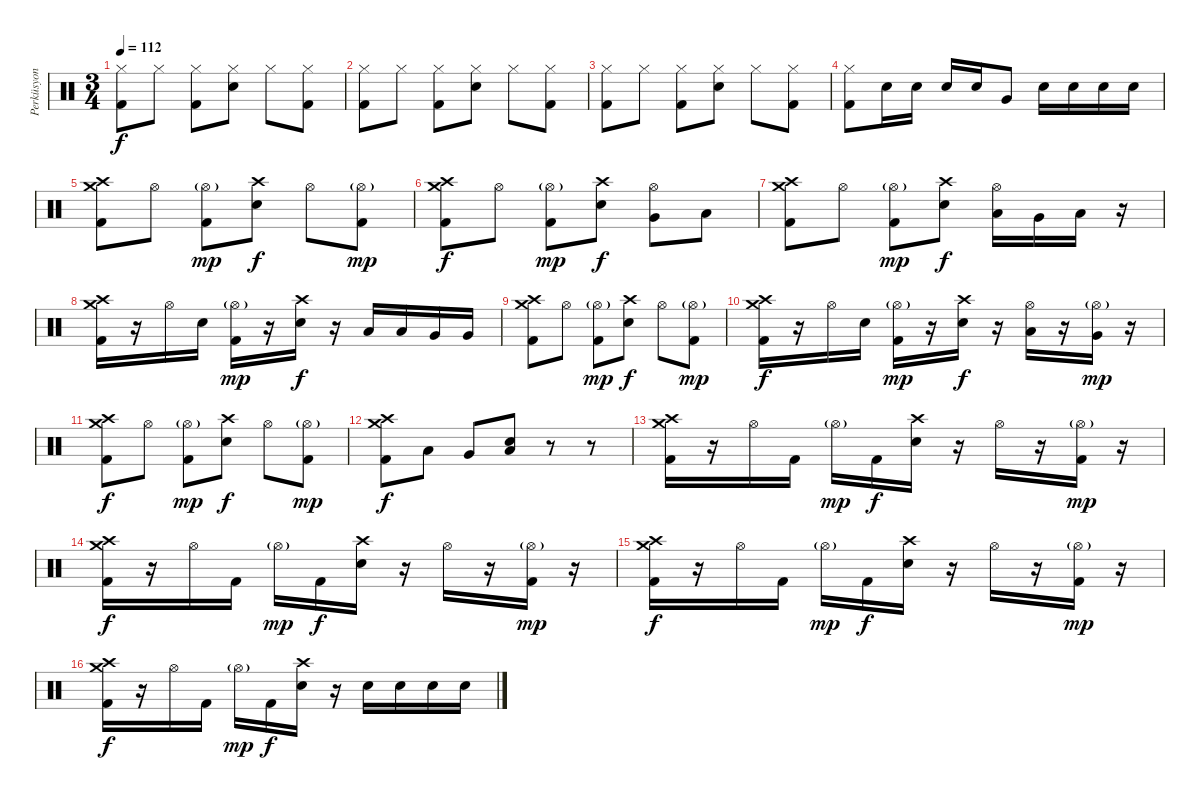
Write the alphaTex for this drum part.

\track ("Perküsyon" "Perküsyon") {instrument percussion}
\staff {score}
\articulation defaults
\ts (3 4)
\tempo 112
\clef neutral
\ks c
("Hi-Hat (closed)" "Kick (hit) 2").8{dy f} "Hi-Hat (closed)".8 ("Hi-Hat (closed)" "Kick (hit) 2").8 ("Hi-Hat (closed)" "Electric Snare (hit)").8 "Hi-Hat (closed)".8 ("Hi-Hat (closed)" "Kick (hit) 2").8 |
("Hi-Hat (closed)" "Kick (hit) 2").8 "Hi-Hat (closed)".8 ("Hi-Hat (closed)" "Kick (hit) 2").8 ("Hi-Hat (closed)" "Electric Snare (hit)").8 "Hi-Hat (closed)".8 ("Hi-Hat (closed)" "Kick (hit) 2").8 |
("Hi-Hat (closed)" "Kick (hit) 2").8 "Hi-Hat (closed)".8 ("Hi-Hat (closed)" "Kick (hit) 2").8 ("Hi-Hat (closed)" "Electric Snare (hit)").8 "Hi-Hat (closed)".8 ("Hi-Hat (closed)" "Kick (hit) 2").8 |
("Hi-Hat (closed)" "Kick (hit) 2").8 "Electric Snare (hit)".16 "Electric Snare (hit)".16 "Electric Snare (hit)".16 "Electric Snare (hit)".16 "Very Low Tom (hit)".8 "Electric Snare (hit)".16 "Electric Snare (hit)".16 "Electric Snare (hit)".16 "Electric Snare (hit)".16 |
("Crash high (hit)" "Crash medium (hit)" "Kick (hit) 2").8 "Hi-Hat (open)".8 ("Hi-Hat (open)"{g} "Kick (hit) 2").8{dy mp} ("Crash high (hit)" "Electric Snare (hit)").8{dy f} "Hi-Hat (open)".8 ("Hi-Hat (open)"{g} "Kick (hit) 2").8{dy mp} |
("Crash high (hit)" "Crash medium (hit)" "Kick (hit) 2").8{dy f} "Hi-Hat (open)".8 ("Hi-Hat (open)"{g} "Kick (hit) 2").8{dy mp} ("Crash high (hit)" "Electric Snare (hit)").8{dy f} ("Hi-Hat (open)" "Very Low Tom (hit)").8 "Low Floor Tom (hit)".8 |
("Crash high (hit)" "Crash medium (hit)" "Kick (hit) 2").8 "Hi-Hat (open)".8 ("Hi-Hat (open)"{g} "Kick (hit) 2").8{dy mp} ("Crash high (hit)" "Electric Snare (hit)").8{dy f} ("Hi-Hat (open)" "Low Tom (hit)").16 "Very Low Tom (hit)".16 "Low Floor Tom (hit)".16 r.16 |
("Crash high (hit)" "Crash medium (hit)" "Kick (hit) 2").16 r.16 "Hi-Hat (open)".16 "Electric Snare (hit)".16 ("Hi-Hat (open)"{g} "Kick (hit) 2").16{dy mp} r.16 ("Crash high (hit)" "Electric Snare (hit)").16{dy f} r.16 "Low Tom (hit)".16 "Low Tom (hit)".16 "Very Low Tom (hit)".16 "Very Low Tom (hit)".16 |
("Crash high (hit)" "Crash medium (hit)" "Kick (hit) 2").8 "Hi-Hat (open)".8 ("Hi-Hat (open)"{g} "Kick (hit) 2").8{dy mp} ("Crash high (hit)" "Electric Snare (hit)").8{dy f} "Hi-Hat (open)".8 ("Hi-Hat (open)"{g} "Kick (hit) 2").8{dy mp} |
("Crash high (hit)" "Crash medium (hit)" "Kick (hit) 2").16{dy f} r.16 "Hi-Hat (open)".16 "Electric Snare (hit)".16 ("Hi-Hat (open)"{g} "Kick (hit) 2").16{dy mp} r.16 ("Crash high (hit)" "Electric Snare (hit)").16{dy f} r.16 ("Hi-Hat (open)" "Low Tom (hit)").16 r.16 ("Hi-Hat (open)"{g} "Very Low Tom (hit)").16{dy mp} r.16 |
("Crash high (hit)" "Crash medium (hit)" "Kick (hit) 2").8{dy f} "Hi-Hat (open)".8 ("Hi-Hat (open)"{g} "Kick (hit) 2").8{dy mp} ("Crash high (hit)" "Electric Snare (hit)").8{dy f} "Hi-Hat (open)".8 ("Hi-Hat (open)"{g} "Kick (hit) 2").8{dy mp} |
("Crash high (hit)" "Crash medium (hit)" "Kick (hit) 2").8{dy f} "Low Tom (hit)".8 "Very Low Tom (hit)".8 ("Low Tom (hit)" "Electric Snare (hit)").8 r.8 r.8 |
("Crash high (hit)" "Crash medium (hit)" "Kick (hit) 2").16 r.16 "Hi-Hat (open)".16 "Kick (hit) 2".16 "Hi-Hat (open)"{g}.16{dy mp} "Kick (hit) 2".16{dy f} ("Crash high (hit)" "Electric Snare (hit)").16 r.16 "Hi-Hat (open)".16 r.16 ("Hi-Hat (open)"{g} "Kick (hit) 2").16{dy mp} r.16 |
("Crash high (hit)" "Crash medium (hit)" "Kick (hit) 2").16{dy f} r.16 "Hi-Hat (open)".16 "Kick (hit) 2".16 "Hi-Hat (open)"{g}.16{dy mp} "Kick (hit) 2".16{dy f} ("Crash high (hit)" "Electric Snare (hit)").16 r.16 "Hi-Hat (open)".16 r.16 ("Hi-Hat (open)"{g} "Kick (hit) 2").16{dy mp} r.16 |
("Crash high (hit)" "Crash medium (hit)" "Kick (hit) 2").16{dy f} r.16 "Hi-Hat (open)".16 "Kick (hit) 2".16 "Hi-Hat (open)"{g}.16{dy mp} "Kick (hit) 2".16{dy f} ("Crash high (hit)" "Electric Snare (hit)").16 r.16 "Hi-Hat (open)".16 r.16 ("Hi-Hat (open)"{g} "Kick (hit) 2").16{dy mp} r.16 |
("Crash high (hit)" "Crash medium (hit)" "Kick (hit) 2").16{dy f} r.16 "Hi-Hat (open)".16 "Kick (hit) 2".16 "Hi-Hat (open)"{g}.16{dy mp} "Kick (hit) 2".16{dy f} ("Crash high (hit)" "Electric Snare (hit)").16 r.16 "Electric Snare (hit)".16 "Electric Snare (hit)".16 "Electric Snare (hit)".16 "Electric Snare (hit)".16
